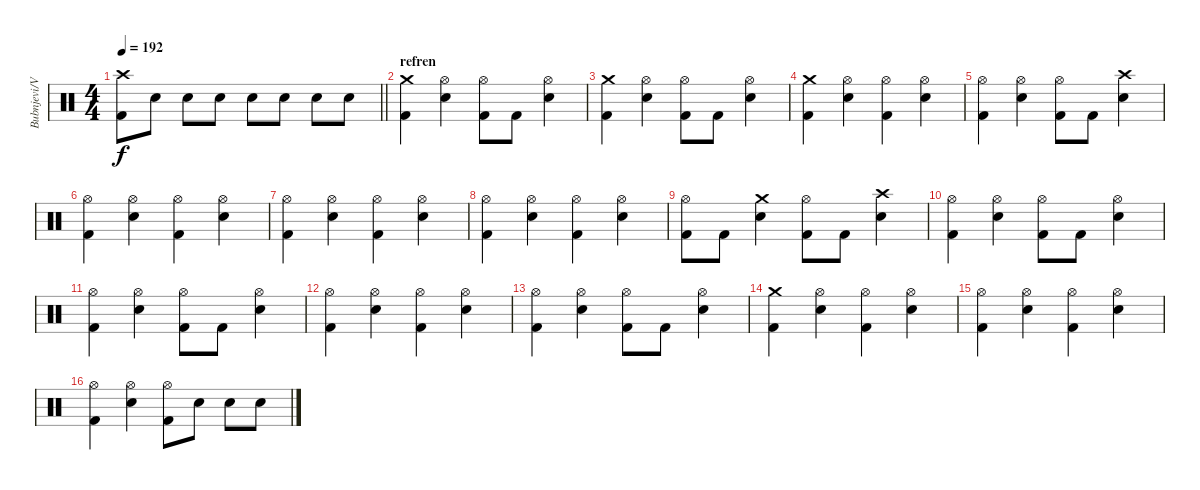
\track ("Bubnjevi/Vestac Tlacitelj" "Bubnjevi/V") {instrument percussion}
\staff {score}
\articulation defaults
\ts (4 4)
\tempo 192
\clef neutral
\barLineRight lightlight
\ks c
("Crash high (hit)" "Kick (hit) 2").8{dy f} "Electric Snare (hit)".8 "Electric Snare (hit)".8 "Electric Snare (hit)".8 "Electric Snare (hit)".8 "Electric Snare (hit)".8 "Electric Snare (hit)".8 "Electric Snare (hit)".8 |
\section ("" "refren")
("Crash medium (hit)" "Kick (hit) 2").4 ("Hi-Hat (open)" "Electric Snare (hit)").4 ("Hi-Hat (open)" "Kick (hit) 2").8 "Kick (hit) 2".8 ("Hi-Hat (open)" "Electric Snare (hit)").4 |
("Crash medium (hit)" "Kick (hit) 2").4 ("Hi-Hat (open)" "Electric Snare (hit)").4 ("Hi-Hat (open)" "Kick (hit) 2").8 "Kick (hit) 2".8 ("Hi-Hat (open)" "Electric Snare (hit)").4 |
("Crash medium (hit)" "Kick (hit) 2").4 ("Hi-Hat (open)" "Electric Snare (hit)").4 ("Hi-Hat (open)" "Kick (hit) 2").4 ("Hi-Hat (open)" "Electric Snare (hit)").4 |
("Hi-Hat (open)" "Kick (hit) 2").4 ("Hi-Hat (open)" "Electric Snare (hit)").4 ("Hi-Hat (open)" "Kick (hit) 2").8 "Kick (hit) 2".8 ("Crash high (hit)" "Electric Snare (hit)").4 |
("Hi-Hat (open)" "Kick (hit) 2").4 ("Hi-Hat (open)" "Electric Snare (hit)").4 ("Hi-Hat (open)" "Kick (hit) 2").4 ("Hi-Hat (open)" "Electric Snare (hit)").4 |
("Hi-Hat (open)" "Kick (hit) 2").4 ("Hi-Hat (open)" "Electric Snare (hit)").4 ("Hi-Hat (open)" "Kick (hit) 2").4 ("Hi-Hat (open)" "Electric Snare (hit)").4 |
("Hi-Hat (open)" "Kick (hit) 2").4 ("Hi-Hat (open)" "Electric Snare (hit)").4 ("Hi-Hat (open)" "Kick (hit) 2").4 ("Hi-Hat (open)" "Electric Snare (hit)").4 |
("Hi-Hat (open)" "Kick (hit) 2").8 "Kick (hit) 2".8 ("Crash medium (hit)" "Electric Snare (hit)").4 ("Hi-Hat (open)" "Kick (hit) 2").8 "Kick (hit) 2".8 ("Crash high (hit)" "Electric Snare (hit)").4 |
("Hi-Hat (open)" "Kick (hit) 2").4 ("Hi-Hat (open)" "Electric Snare (hit)").4 ("Hi-Hat (open)" "Kick (hit) 2").8 "Kick (hit) 2".8 ("Hi-Hat (open)" "Electric Snare (hit)").4 |
("Hi-Hat (open)" "Kick (hit) 2").4 ("Hi-Hat (open)" "Electric Snare (hit)").4 ("Hi-Hat (open)" "Kick (hit) 2").8 "Kick (hit) 2".8 ("Hi-Hat (open)" "Electric Snare (hit)").4 |
("Hi-Hat (open)" "Kick (hit) 2").4 ("Hi-Hat (open)" "Electric Snare (hit)").4 ("Hi-Hat (open)" "Kick (hit) 2").4 ("Hi-Hat (open)" "Electric Snare (hit)").4 |
("Hi-Hat (open)" "Kick (hit) 2").4 ("Hi-Hat (open)" "Electric Snare (hit)").4 ("Hi-Hat (open)" "Kick (hit) 2").8 "Kick (hit) 2".8 ("Hi-Hat (open)" "Electric Snare (hit)").4 |
("Crash medium (hit)" "Kick (hit) 2").4 ("Hi-Hat (open)" "Electric Snare (hit)").4 ("Hi-Hat (open)" "Kick (hit) 2").4 ("Hi-Hat (open)" "Electric Snare (hit)").4 |
("Hi-Hat (open)" "Kick (hit) 2").4 ("Hi-Hat (open)" "Electric Snare (hit)").4 ("Hi-Hat (open)" "Kick (hit) 2").4 ("Hi-Hat (open)" "Electric Snare (hit)").4 |
("Hi-Hat (open)" "Kick (hit) 2").4 ("Hi-Hat (open)" "Electric Snare (hit)").4 ("Hi-Hat (open)" "Kick (hit) 2").8 "Electric Snare (hit)".8 "Electric Snare (hit)".8 "Electric Snare (hit)".8
